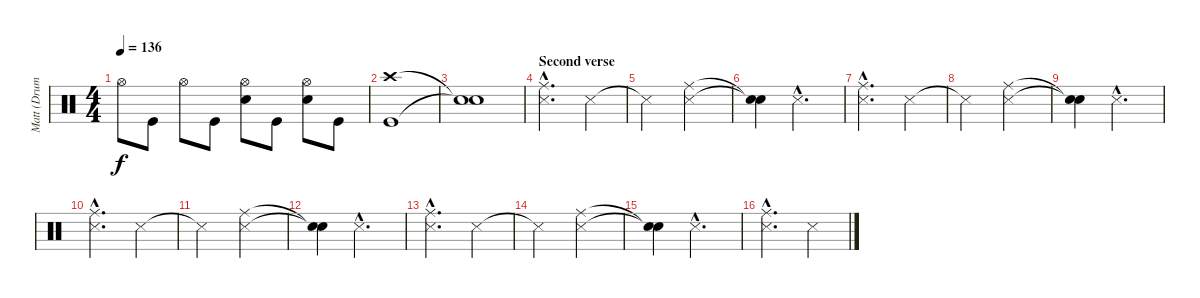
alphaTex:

\track ("Matt (Drums)" "Matt (Drum") {instrument percussion}
\staff {score}
\articulation defaults
\ts (4 4)
\tempo 136
\clef neutral
\ks c "Hi-Hat (open)".8{dy f} "Kick (hit)".8 "Hi-Hat (open)".8 "Kick (hit)".8
("Hi-Hat (open)" "Electric Snare (hit)").8 "Kick (hit)".8 ("Hi-Hat (open)" "Electric Snare (hit)").8 "Kick (hit)".8 |
("Crash high (hit)" "Kick (hit)").1 |
("Snare (hit)"{t} "Snare (hit)"{t}).1 |
\section ("" "Second verse")
("Ride (middle)"{hac} "Metronome (hit)"{hac}).2{d} "Metronome (hit)".4 |
"Metronome (hit)"{t}.2 ("Ride (middle)" "Metronome (hit)").2 |
("Snare (hit)"{t} "Snare (hit)"{t}).4 "Metronome (hit)"{hac}.2{d} |
("Ride (middle)"{hac} "Metronome (hit)"{hac}).2{d} "Metronome (hit)".4 |
"Metronome (hit)"{t}.2 ("Ride (middle)" "Metronome (hit)").2 |
("Snare (hit)"{t} "Snare (hit)"{t}).4 "Metronome (hit)"{hac}.2{d} |
("Ride (middle)"{hac} "Metronome (hit)"{hac}).2{d} "Metronome (hit)".4 |
"Metronome (hit)"{t}.2 ("Ride (middle)" "Metronome (hit)").2 |
("Snare (hit)"{t} "Snare (hit)"{t}).4 "Metronome (hit)"{hac}.2{d} |
("Ride (middle)"{hac} "Metronome (hit)"{hac}).2{d} "Metronome (hit)".4 |
"Metronome (hit)"{t}.2 ("Ride (middle)" "Metronome (hit)").2 |
("Snare (hit)"{t} "Snare (hit)"{t}).4 "Metronome (hit)"{hac}.2{d} |
("Ride (middle)"{hac} "Metronome (hit)"{hac}).2{d} "Metronome (hit)".4
